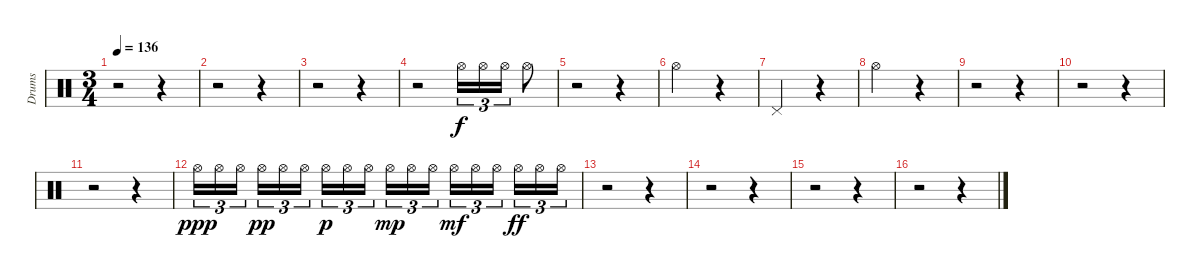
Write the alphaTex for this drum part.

\track ("Drums" "Drums") {instrument percussion}
\staff {score}
\articulation defaults
\ts (3 4)
\tempo 136
\clef neutral
\ks c
r.2{dy f} r.4 |
r.2 r.4 |
r.2 r.4 |
r.2 "Hi-Hat (open)".16{tu (3 2)} "Hi-Hat (open)".16{tu (3 2)} "Hi-Hat (open)".16{tu (3 2)} "Hi-Hat (open)".8 |
r.2 r.4 |
"Hi-Hat (open)".2 r.4 |
"Pedal Hi-Hat (hit)".2 r.4 |
"Hi-Hat (open)".2 r.4 |
r.2 r.4 |
r.2 r.4 |
r.2 r.4 |
"Hi-Hat (open)".16{tu (3 2) dy ppp} "Hi-Hat (open)".16{tu (3 2)} "Hi-Hat (open)".16{tu (3 2)} "Hi-Hat (open)".16{tu (3 2) dy pp} "Hi-Hat (open)".16{tu (3 2)} "Hi-Hat (open)".16{tu (3 2)} "Hi-Hat (open)".16{tu (3 2) dy p} "Hi-Hat (open)".16{tu (3 2)} "Hi-Hat (open)".16{tu (3 2)} "Hi-Hat (open)".16{tu (3 2) dy mp} "Hi-Hat (open)".16{tu (3 2)} "Hi-Hat (open)".16{tu (3 2)} "Hi-Hat (open)".16{tu (3 2) dy mf} "Hi-Hat (open)".16{tu (3 2)} "Hi-Hat (open)".16{tu (3 2)} "Hi-Hat (open)".16{tu (3 2) dy ff} "Hi-Hat (open)".16{tu (3 2)} "Hi-Hat (open)".16{tu (3 2)} |
r.2 r.4 |
r.2 r.4 |
r.2 r.4 |
r.2 r.4
